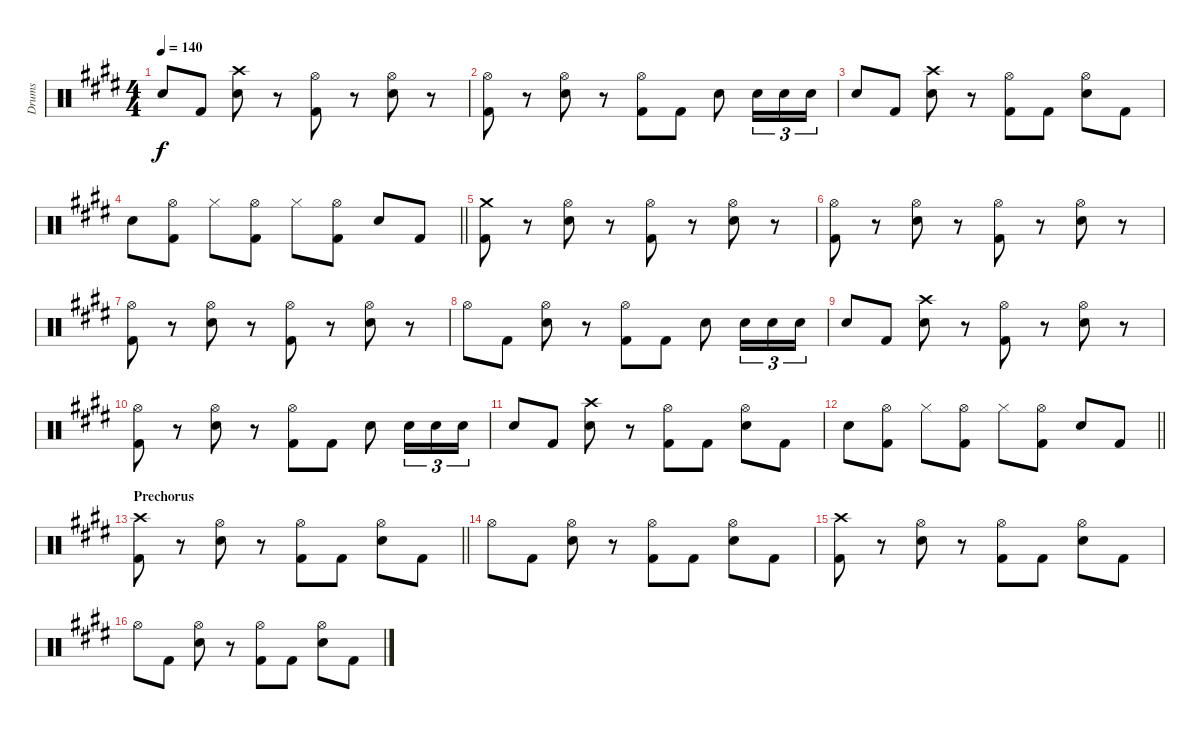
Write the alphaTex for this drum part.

\track ("Drums" "Drums") {instrument percussion}
\staff {score}
\articulation defaults
\ts (4 4)
\tempo 140
\clef neutral
\ks e "Electric Snare (hit)".8{dy f} "Kick (hit) 2".8
("Crash high (hit)" "Electric Snare (hit)").8 r.8 ("Hi-Hat (open)" "Kick (hit) 2").8 r.8 ("Hi-Hat (open)" "Electric Snare (hit)").8 r.8 |
\ks c#minor
("Hi-Hat (open)" "Kick (hit) 2").8 r.8 ("Hi-Hat (open)" "Electric Snare (hit)").8 r.8 ("Hi-Hat (open)" "Kick (hit) 2").8 "Kick (hit) 2".8 "Electric Snare (hit)".8 "Electric Snare (hit)".16{tu (3 2)} "Electric Snare (hit)".16{tu (3 2)} "Electric Snare (hit)".16{tu (3 2)} |
\ks e "Electric Snare (hit)".8 "Kick (hit) 2".8
("Crash high (hit)" "Electric Snare (hit)").8 r.8 ("Hi-Hat (open)" "Kick (hit) 2").8 "Kick (hit) 2".8 ("Hi-Hat (open)" "Electric Snare (hit)").8 "Kick (hit) 2".8 |
\barLineRight lightlight
\ks c#minor "Electric Snare (hit)".8
("Hi-Hat (open)" "Kick (hit) 2").8 "Hi-Hat (closed)".8 ("Hi-Hat (open)" "Kick (hit) 2").8 "Hi-Hat (closed)".8 ("Hi-Hat (open)" "Kick (hit) 2").8 "Electric Snare (hit)".8 "Kick (hit) 2".8 |
("Crash medium (hit)" "Kick (hit) 2").8 r.8 ("Hi-Hat (open)" "Electric Snare (hit)").8 r.8 ("Hi-Hat (open)" "Kick (hit) 2").8 r.8 ("Hi-Hat (open)" "Electric Snare (hit)").8 r.8 |
("Hi-Hat (open)" "Kick (hit) 2").8 r.8 ("Hi-Hat (open)" "Electric Snare (hit)").8 r.8 ("Hi-Hat (open)" "Kick (hit) 2").8 r.8 ("Hi-Hat (open)" "Electric Snare (hit)").8 r.8 |
("Hi-Hat (open)" "Kick (hit) 2").8 r.8 ("Hi-Hat (open)" "Electric Snare (hit)").8 r.8 ("Hi-Hat (open)" "Kick (hit) 2").8 r.8 ("Hi-Hat (open)" "Electric Snare (hit)").8 r.8 |
"Hi-Hat (open)".8 "Kick (hit) 2".8 ("Hi-Hat (open)" "Electric Snare (hit)").8 r.8 ("Hi-Hat (open)" "Kick (hit) 2").8 "Kick (hit) 2".8 "Electric Snare (hit)".8 "Electric Snare (hit)".16{tu (3 2)} "Electric Snare (hit)".16{tu (3 2)} "Electric Snare (hit)".16{tu (3 2)} |
\ks e "Electric Snare (hit)".8 "Kick (hit) 2".8
("Crash high (hit)" "Electric Snare (hit)").8 r.8 ("Hi-Hat (open)" "Kick (hit) 2").8 r.8 ("Hi-Hat (open)" "Electric Snare (hit)").8 r.8 |
\ks c#minor
("Hi-Hat (open)" "Kick (hit) 2").8 r.8 ("Hi-Hat (open)" "Electric Snare (hit)").8 r.8 ("Hi-Hat (open)" "Kick (hit) 2").8 "Kick (hit) 2".8 "Electric Snare (hit)".8 "Electric Snare (hit)".16{tu (3 2)} "Electric Snare (hit)".16{tu (3 2)} "Electric Snare (hit)".16{tu (3 2)} |
\ks e "Electric Snare (hit)".8 "Kick (hit) 2".8
("Crash high (hit)" "Electric Snare (hit)").8 r.8 ("Hi-Hat (open)" "Kick (hit) 2").8 "Kick (hit) 2".8 ("Hi-Hat (open)" "Electric Snare (hit)").8 "Kick (hit) 2".8 |
\barLineRight lightlight
\ks c#minor "Electric Snare (hit)".8
("Hi-Hat (open)" "Kick (hit) 2").8 "Hi-Hat (closed)".8 ("Hi-Hat (open)" "Kick (hit) 2").8 "Hi-Hat (closed)".8 ("Hi-Hat (open)" "Kick (hit) 2").8 "Electric Snare (hit)".8 "Kick (hit) 2".8 |
\section ("" "Prechorus")
\barLineRight lightlight
("Crash high (hit)" "Kick (hit) 2").8 r.8 ("Hi-Hat (open)" "Electric Snare (hit)").8 r.8 ("Hi-Hat (open)" "Kick (hit) 2").8 "Kick (hit) 2".8 ("Hi-Hat (open)" "Electric Snare (hit)").8 "Kick (hit) 2".8 |
"Hi-Hat (open)".8 "Kick (hit) 2".8 ("Hi-Hat (open)" "Electric Snare (hit)").8 r.8 ("Hi-Hat (open)" "Kick (hit) 2").8 "Kick (hit) 2".8 ("Hi-Hat (open)" "Electric Snare (hit)").8 "Kick (hit) 2".8 |
("Crash high (hit)" "Kick (hit) 2").8 r.8 ("Hi-Hat (open)" "Electric Snare (hit)").8 r.8 ("Hi-Hat (open)" "Kick (hit) 2").8 "Kick (hit) 2".8 ("Hi-Hat (open)" "Electric Snare (hit)").8 "Kick (hit) 2".8 |
"Hi-Hat (open)".8 "Kick (hit) 2".8 ("Hi-Hat (open)" "Electric Snare (hit)").8 r.8 ("Hi-Hat (open)" "Kick (hit) 2").8 "Kick (hit) 2".8 ("Hi-Hat (open)" "Electric Snare (hit)").8 "Kick (hit) 2".8
